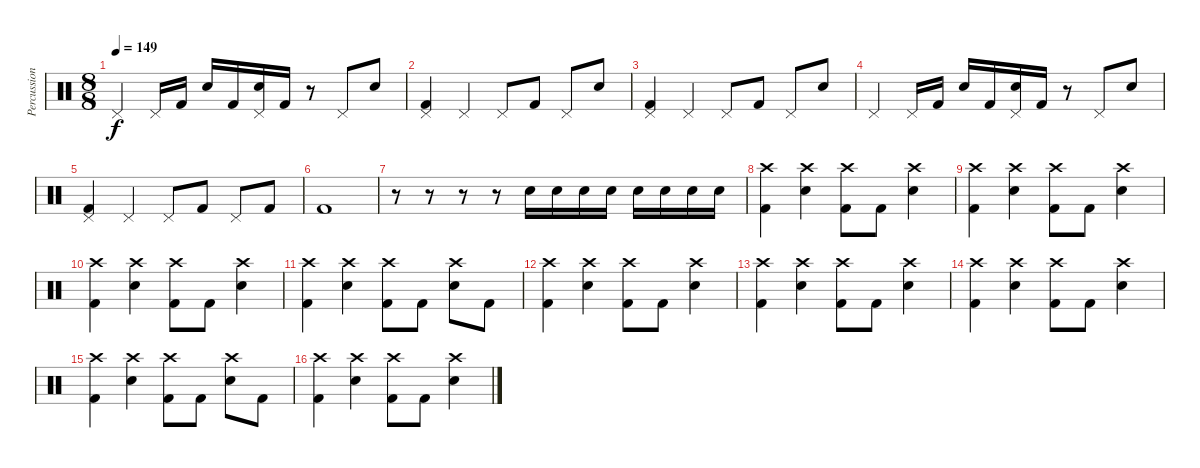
\track ("Percussion" "Percussion") {instrument percussion}
\staff {score}
\articulation defaults
\ts (8 8)
\tempo 149
\clef neutral
\ks c "Pedal Hi-Hat (hit)".4{dy f} "Pedal Hi-Hat (hit)".16 "Kick (hit) 2".16 "Snare (hit) 2".16 "Kick (hit) 2".16
("Pedal Hi-Hat (hit)" "Snare (hit) 2").16 "Kick (hit) 2".16 r.8 "Pedal Hi-Hat (hit)".8 "Snare (hit) 2".8 |
("Pedal Hi-Hat (hit)" "Kick (hit) 2").4 "Pedal Hi-Hat (hit)".4 "Pedal Hi-Hat (hit)".8 "Kick (hit) 2".8 "Pedal Hi-Hat (hit)".8 "Snare (hit) 2".8 |
("Pedal Hi-Hat (hit)" "Kick (hit) 2").4 "Pedal Hi-Hat (hit)".4 "Pedal Hi-Hat (hit)".8 "Kick (hit) 2".8 "Pedal Hi-Hat (hit)".8 "Snare (hit) 2".8 |
"Pedal Hi-Hat (hit)".4 "Pedal Hi-Hat (hit)".16 "Kick (hit) 2".16 "Snare (hit) 2".16 "Kick (hit) 2".16 ("Pedal Hi-Hat (hit)" "Snare (hit) 2").16 "Kick (hit) 2".16 r.8 "Pedal Hi-Hat (hit)".8 "Snare (hit) 2".8 |
("Pedal Hi-Hat (hit)" "Kick (hit) 2").4 "Pedal Hi-Hat (hit)".4 "Pedal Hi-Hat (hit)".8 "Kick (hit) 2".8 "Pedal Hi-Hat (hit)".8 "Kick (hit) 2".8 |
"Kick (hit) 2".1 |
r.8 r.8 r.8 r.8 "Electric Snare (hit)".16 "Electric Snare (hit)".16 "Electric Snare (hit)".16 "Electric Snare (hit)".16 "Electric Snare (hit)".16 "Electric Snare (hit)".16 "Electric Snare (hit)".16 "Electric Snare (hit)".16 |
("Crash high (hit)" "Kick (hit) 2").4 ("Crash high (hit)" "Snare (hit) 2").4 ("Crash high (hit)" "Kick (hit) 2").8 "Kick (hit) 2".8 ("Crash high (hit)" "Snare (hit) 2").4 |
("Crash high (hit)" "Kick (hit) 2").4 ("Crash high (hit)" "Snare (hit) 2").4 ("Crash high (hit)" "Kick (hit) 2").8 "Kick (hit) 2".8 ("Crash high (hit)" "Snare (hit) 2").4 |
("Crash high (hit)" "Kick (hit) 2").4 ("Crash high (hit)" "Snare (hit) 2").4 ("Crash high (hit)" "Kick (hit) 2").8 "Kick (hit) 2".8 ("Crash high (hit)" "Snare (hit) 2").4 |
("Crash high (hit)" "Kick (hit) 2").4 ("Crash high (hit)" "Snare (hit) 2").4 ("Crash high (hit)" "Kick (hit) 2").8 "Kick (hit) 2".8 ("Crash high (hit)" "Snare (hit) 2").8 "Kick (hit) 2".8 |
("Crash high (hit)" "Kick (hit) 2").4 ("Crash high (hit)" "Snare (hit) 2").4 ("Crash high (hit)" "Kick (hit) 2").8 "Kick (hit) 2".8 ("Crash high (hit)" "Snare (hit) 2").4 |
("Crash high (hit)" "Kick (hit) 2").4 ("Crash high (hit)" "Snare (hit) 2").4 ("Crash high (hit)" "Kick (hit) 2").8 "Kick (hit) 2".8 ("Crash high (hit)" "Snare (hit) 2").4 |
("Crash high (hit)" "Kick (hit) 2").4 ("Crash high (hit)" "Snare (hit) 2").4 ("Crash high (hit)" "Kick (hit) 2").8 "Kick (hit) 2".8 ("Crash high (hit)" "Snare (hit) 2").4 |
("Crash high (hit)" "Kick (hit) 2").4 ("Crash high (hit)" "Snare (hit) 2").4 ("Crash high (hit)" "Kick (hit) 2").8 "Kick (hit) 2".8 ("Crash high (hit)" "Snare (hit) 2").8 "Kick (hit) 2".8 |
("Crash high (hit)" "Kick (hit) 2").4 ("Crash high (hit)" "Snare (hit) 2").4 ("Crash high (hit)" "Kick (hit) 2").8 "Kick (hit) 2".8 ("Crash high (hit)" "Snare (hit) 2").4
